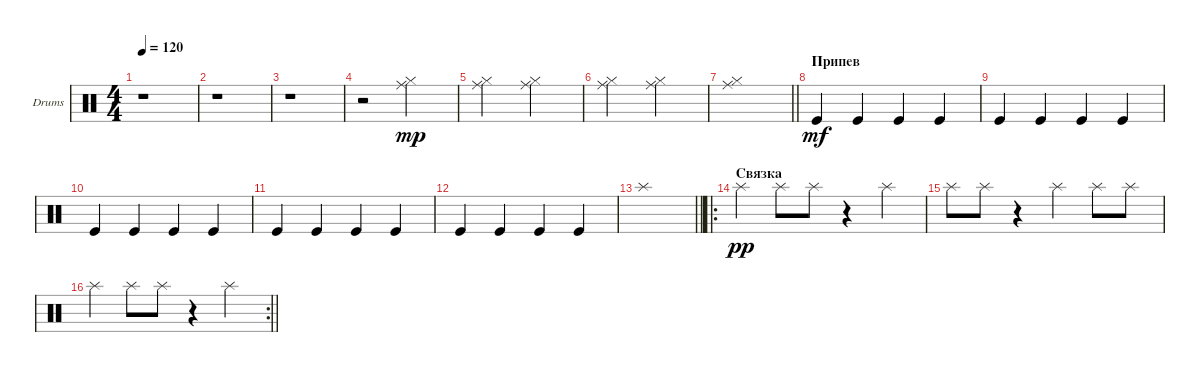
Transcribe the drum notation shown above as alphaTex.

\bracketExtendMode groupsimilarinstruments
\firstSystemTrackNameOrientation horizontal
\otherSystemsTrackNameOrientation horizontal
\track ("Drumkit" "Drums") {instrument percussion}
\staff {score}
\articulation defaults
\ts (4 4)
\tempo 120
\clef neutral
\ks c
r.1{dy mp} |
r.1 |
r.1 |
r.2 ("Hi-Hat (closed)" "Ride (middle)").2 |
("Hi-Hat (closed)" "Ride (middle)").2 ("Hi-Hat (closed)" "Ride (middle)").2 |
("Hi-Hat (closed)" "Ride (middle)").2 ("Hi-Hat (closed)" "Ride (middle)").2 |
\barLineRight lightlight
("Hi-Hat (closed)" "Ride (middle)").1 |
\section ("" "Припев")
"Kick (hit)".4{dy mf} "Kick (hit)".4 "Kick (hit)".4 "Kick (hit)".4 |
"Kick (hit)".4 "Kick (hit)".4 "Kick (hit)".4 "Kick (hit)".4 |
"Kick (hit)".4 "Kick (hit)".4 "Kick (hit)".4 "Kick (hit)".4 |
"Kick (hit)".4 "Kick (hit)".4 "Kick (hit)".4 "Kick (hit)".4 |
"Kick (hit)".4 "Kick (hit)".4 "Kick (hit)".4 "Kick (hit)".4 |
\barLineRight lightlight "Splash (hit)".1
|
\ro
\section ("" "Связка")
"Splash (hit)".4{dy pp} "Splash (hit)".8 "Splash (hit)".8 r.4 "Splash (hit)".4 |
"Splash (hit)".8 "Splash (hit)".8 r.4 "Splash (hit)".4 "Splash (hit)".8 "Splash (hit)".8 |
\rc 2
\barLineRight lightlight "Splash (hit)".4 "Splash (hit)".8 "Splash (hit)".8
r.4 "Splash (hit)".4
